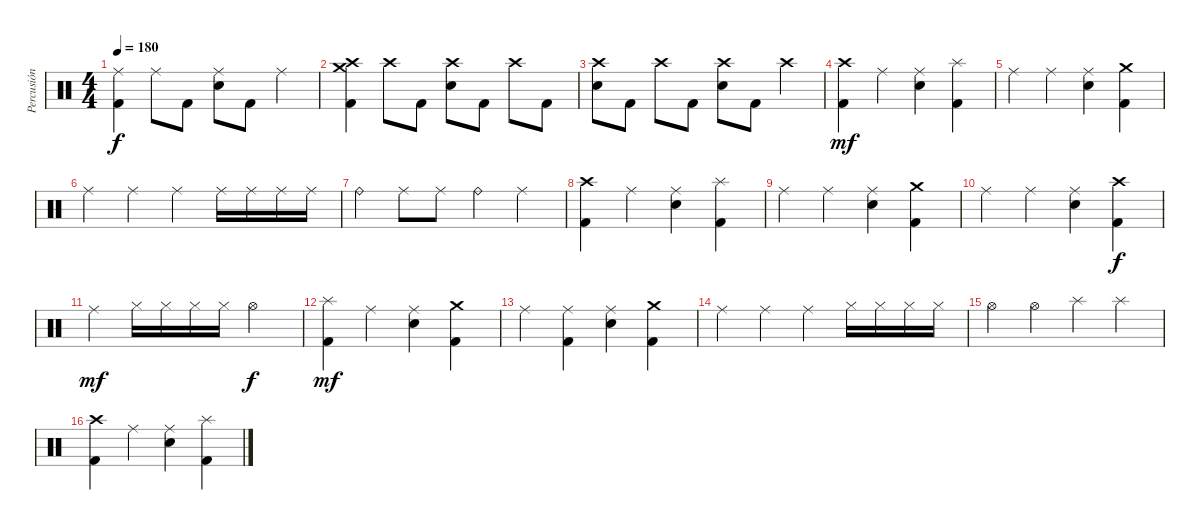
\track ("Percusión" "Percusión") {instrument percussion}
\staff {score}
\articulation defaults
\ts (4 4)
\tempo 180
\clef neutral
\ks c
("Ride (middle)" "Kick (hit) 2").4{dy f} "Ride (middle)".8 "Kick (hit) 2".8 ("Ride (middle)" "Snare (hit) 2").8 "Kick (hit) 2".8 "Ride (middle)".4 |
("Crash medium (hit)" "Crash high (hit)" "Kick (hit) 2").4 "Crash high (hit)".8 "Kick (hit) 2".8 ("Crash high (hit)" "Snare (hit) 2").8 "Kick (hit) 2".8 "Crash high (hit)".8 "Kick (hit) 2".8 |
("Crash high (hit)" "Snare (hit) 2").8 "Kick (hit) 2".8 "Crash high (hit)".8 "Kick (hit) 2".8 ("Crash high (hit)" "Snare (hit) 2").8 "Kick (hit) 2".8 "Crash high (hit)".4 |
("Crash high (hit)" "Kick (hit) 2").4{dy mf} "Ride (middle)".4 ("Ride (middle)" "Snare (hit) 2").4 ("Splash (hit)" "Kick (hit) 2").4 |
"Ride (middle)".4 "Ride (middle)".4 ("Ride (middle)" "Snare (hit) 2").4 ("Crash medium (hit)" "Kick (hit) 2").4 |
"Ride (middle)".4 "Ride (middle)".4 "Ride (middle)".4 "Ride (middle)".16 "Ride (middle)".16 "Ride (middle)".16 "Ride (middle)".16 |
"Ride (bell)".4 "Ride (middle)".8 "Ride (middle)".8 "Ride (bell)".4 "Ride (middle)".4 |
("Crash high (hit)" "Kick (hit) 2").4 "Ride (middle)".4 ("Ride (middle)" "Snare (hit) 2").4 ("Splash (hit)" "Kick (hit) 2").4 |
"Ride (middle)".4 "Ride (middle)".4 ("Ride (middle)" "Snare (hit) 2").4 ("Crash medium (hit)" "Kick (hit) 2").4 |
"Ride (middle)".4 "Ride (middle)".4 ("Ride (middle)" "Snare (hit) 2").4 ("Crash high (hit)" "Kick (hit) 2").4{dy f} |
"Ride (middle)".4{dy mf} "Hi-Hat (closed)".16 "Hi-Hat (closed)".16 "Hi-Hat (closed)".16 "Hi-Hat (closed)".16 "Hi-Hat (open)".2{dy f} |
("Splash (hit)" "Kick (hit) 2").4{dy mf} "Ride (middle)".4 ("Ride (middle)" "Snare (hit) 2").4 ("Crash medium (hit)" "Kick (hit) 2").4 |
"Ride (middle)".4 ("Ride (middle)" "Kick (hit) 2").4 ("Ride (middle)" "Snare (hit) 2").4 ("Crash medium (hit)" "Kick (hit) 2").4 |
"Ride (middle)".4 "Ride (middle)".4 "Ride (middle)".4 "Hi-Hat (closed)".16 "Hi-Hat (closed)".16 "Hi-Hat (closed)".16 "Hi-Hat (closed)".16 |
"Hi-Hat (open)".4 "Hi-Hat (open)".4 "Splash (hit)".4 "Splash (hit)".4 |
("Crash high (hit)" "Kick (hit) 2").4 "Ride (middle)".4 ("Ride (middle)" "Snare (hit) 2").4 ("Splash (hit)" "Kick (hit) 2").4
